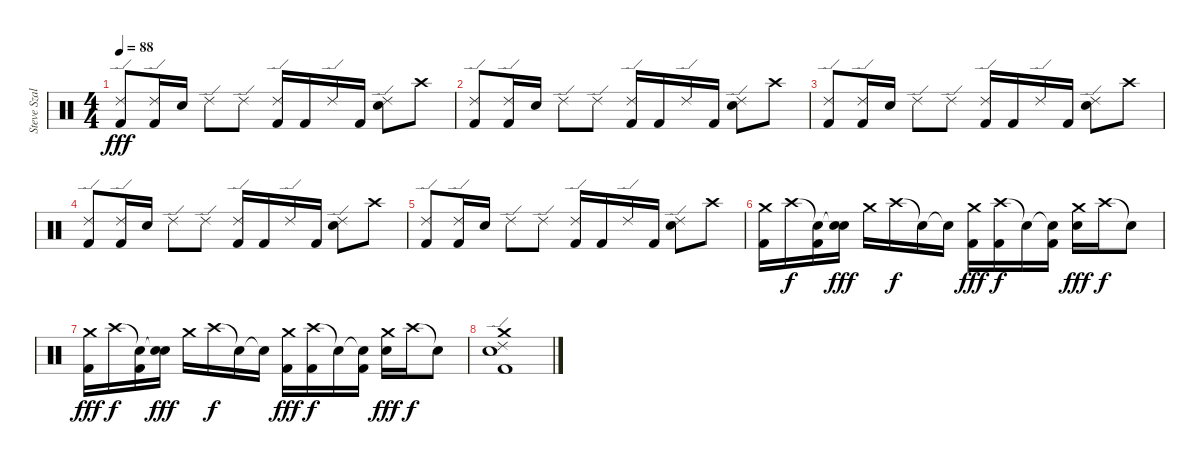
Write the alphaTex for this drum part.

\track ("Steve Szalay " "Steve Szal") {instrument percussion}
\staff {score}
\articulation defaults
\ts (4 4)
\tempo 88
\clef neutral
\ks c
("Ride (edge) 2" "Kick (hit) 2").8{dy fff} ("Ride (edge) 2" "Kick (hit) 2").16 "Electric Snare (hit)".16 "Ride (edge) 2".8 "Ride (edge) 2".8 ("Ride (edge) 2" "Kick (hit) 2").16 "Kick (hit) 2".16 "Ride (edge) 2".16 "Kick (hit) 2".16 ("Ride (edge) 2" "Electric Snare (hit)").8 "Crash high (hit)".8 |
("Ride (edge) 2" "Kick (hit) 2").8 ("Ride (edge) 2" "Kick (hit) 2").16 "Electric Snare (hit)".16 "Ride (edge) 2".8 "Ride (edge) 2".8 ("Ride (edge) 2" "Kick (hit) 2").16 "Kick (hit) 2".16 "Ride (edge) 2".16 "Kick (hit) 2".16 ("Ride (edge) 2" "Electric Snare (hit)").8 "Crash high (hit)".8 |
("Ride (edge) 2" "Kick (hit) 2").8 ("Ride (edge) 2" "Kick (hit) 2").16 "Electric Snare (hit)".16 "Ride (edge) 2".8 "Ride (edge) 2".8 ("Ride (edge) 2" "Kick (hit) 2").16 "Kick (hit) 2".16 "Ride (edge) 2".16 "Kick (hit) 2".16 ("Ride (edge) 2" "Electric Snare (hit)").8 "Crash high (hit)".8 |
("Ride (edge) 2" "Kick (hit) 2").8 ("Ride (edge) 2" "Kick (hit) 2").16 "Electric Snare (hit)".16 "Ride (edge) 2".8 "Ride (edge) 2".8 ("Ride (edge) 2" "Kick (hit) 2").16 "Kick (hit) 2".16 "Ride (edge) 2".16 "Kick (hit) 2".16 ("Ride (edge) 2" "Electric Snare (hit)").8 "Crash high (hit)".8 |
("Ride (edge) 2" "Kick (hit) 2").8 ("Ride (edge) 2" "Kick (hit) 2").16 "Electric Snare (hit)".16 "Ride (edge) 2".8 "Ride (edge) 2".8 ("Ride (edge) 2" "Kick (hit) 2").16 "Kick (hit) 2".16 "Ride (edge) 2".16 "Kick (hit) 2".16 ("Ride (edge) 2" "Electric Snare (hit)").8 "Crash high (hit)".8 |
("Crash medium (hit)" "Kick (hit) 2").16 "Crash high (hit)".16{dy f} ("Snare (hit)"{t} "Kick (hit) 2").16 ("Snare (hit)"{t} "Electric Snare (hit)").16{dy fff} "Crash medium (hit)".16 "Crash high (hit)".16{dy f} "Snare (hit)"{t}.16 "Snare (hit)"{t}.16 ("Crash medium (hit)" "Kick (hit) 2").16{dy fff} ("Crash high (hit)" "Kick (hit) 2").16{dy f} "Snare (hit)"{t}.16 ("Snare (hit)"{t} "Kick (hit) 2").16 ("Crash medium (hit)" "Electric Snare (hit)").16{dy fff} "Crash high (hit)".16{dy f} "Snare (hit)"{t}.8 |
("Crash medium (hit)" "Kick (hit) 2").16{dy fff} "Crash high (hit)".16{dy f} ("Snare (hit)"{t} "Kick (hit) 2").16 ("Snare (hit)"{t} "Electric Snare (hit)").16{dy fff} "Crash medium (hit)".16 "Crash high (hit)".16{dy f} "Snare (hit)"{t}.16 "Snare (hit)"{t}.16 ("Crash medium (hit)" "Kick (hit) 2").16{dy fff} ("Crash high (hit)" "Kick (hit) 2").16{dy f} "Snare (hit)"{t}.16 ("Snare (hit)"{t} "Kick (hit) 2").16 ("Crash medium (hit)" "Electric Snare (hit)").16{dy fff} "Crash high (hit)".16{dy f} "Snare (hit)"{t}.8 |
("Ride (edge) 2" "Crash medium (hit)" "Electric Snare (hit)" "Kick (hit) 2").1
